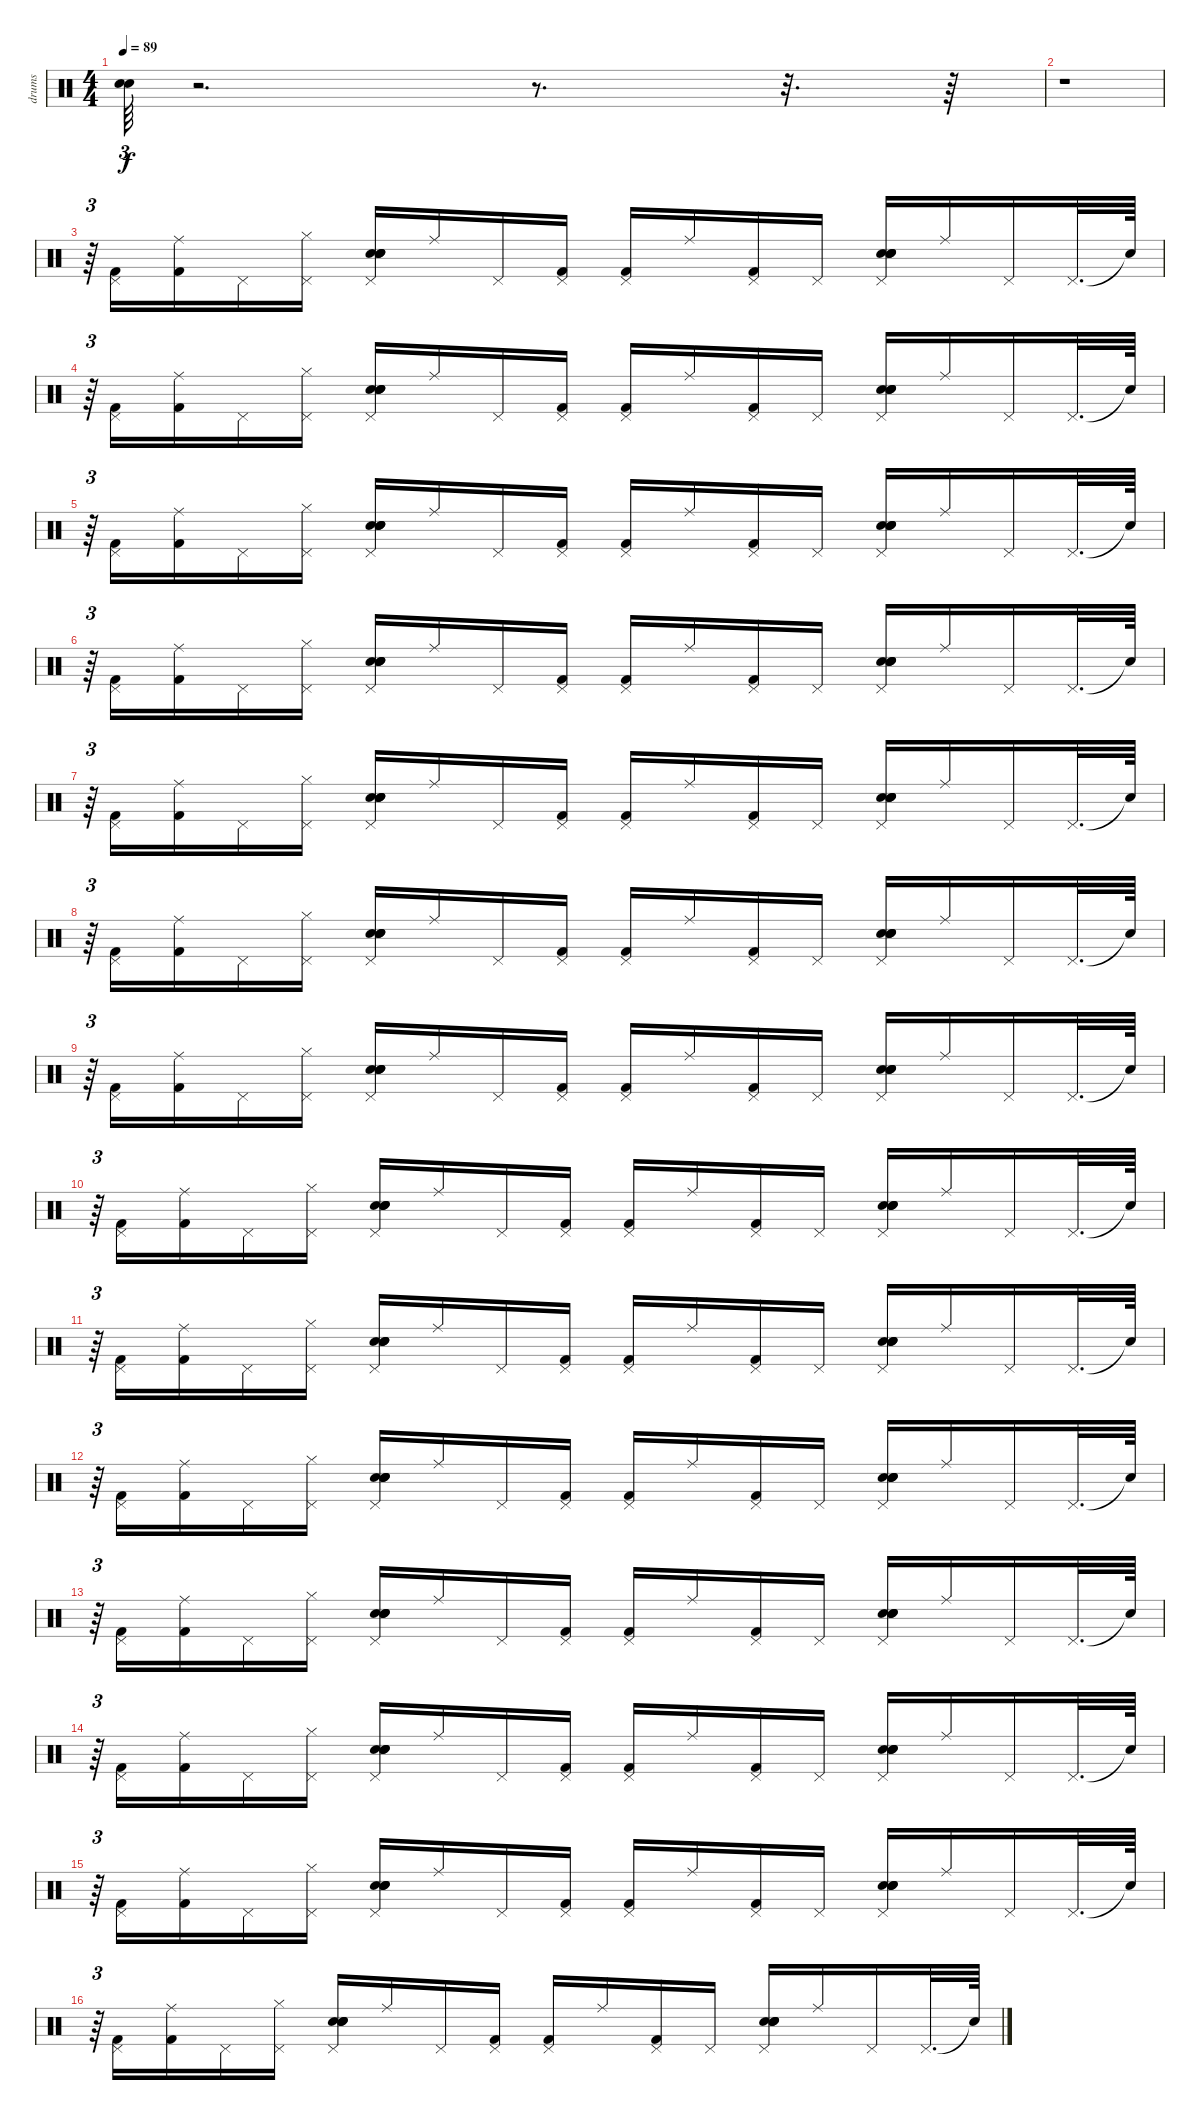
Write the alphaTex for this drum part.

\track ("drums" "drums") {instrument percussion}
\staff {score}
\articulation defaults
\ts (4 4)
\tempo 89
\clef neutral
\ks c
("Snare (hit)"{t} "Snare (hit)"{t}).64{tu (3 2) dy f} r.2{d} r.8{d} r.32{d} r.64 |
r.1 |
r.64{tu (3 2)} ("Kick (hit) 2" "Pedal Hi-Hat (hit)").16 ("Kick (hit) 2" "Ride (middle)").16 "Pedal Hi-Hat (hit)".16 ("Hi-Hat (closed)" "Pedal Hi-Hat (hit)").16 ("Hand Clap (hit)" "Hand Clap (hit)" "Pedal Hi-Hat (hit)" "Electric Snare (hit)" "Electric Snare (hit)").16 "Ride (middle)".16 "Pedal Hi-Hat (hit)".16 ("Kick (hit) 2" "Pedal Hi-Hat (hit)").16 ("Pedal Hi-Hat (hit)" "Kick (hit) 2").16 "Ride (middle)".16 ("Kick (hit) 2" "Pedal Hi-Hat (hit)").16 "Pedal Hi-Hat (hit)".16 ("Pedal Hi-Hat (hit)" "Electric Snare (hit)" "Electric Snare (hit)" "Hand Clap (hit)" "Hand Clap (hit)").16 "Ride (middle)".16 "Pedal Hi-Hat (hit)".16 "Pedal Hi-Hat (hit)".32{d} "Snare (hit)"{t}.64 |
r.64{tu (3 2)} ("Kick (hit) 2" "Pedal Hi-Hat (hit)").16 ("Kick (hit) 2" "Ride (middle)").16 "Pedal Hi-Hat (hit)".16 ("Pedal Hi-Hat (hit)" "Hi-Hat (closed)").16 ("Hand Clap (hit)" "Hand Clap (hit)" "Electric Snare (hit)" "Electric Snare (hit)" "Pedal Hi-Hat (hit)").16 "Ride (middle)".16 "Pedal Hi-Hat (hit)".16 ("Pedal Hi-Hat (hit)" "Kick (hit) 2").16 ("Kick (hit) 2" "Pedal Hi-Hat (hit)").16 "Ride (middle)".16 ("Kick (hit) 2" "Pedal Hi-Hat (hit)").16 "Pedal Hi-Hat (hit)".16 ("Electric Snare (hit)" "Hand Clap (hit)" "Hand Clap (hit)" "Pedal Hi-Hat (hit)" "Electric Snare (hit)").16 "Ride (middle)".16 "Pedal Hi-Hat (hit)".16 "Pedal Hi-Hat (hit)".32{d} "Snare (hit)"{t}.64 |
r.64{tu (3 2)} ("Kick (hit) 2" "Pedal Hi-Hat (hit)").16 ("Kick (hit) 2" "Ride (middle)").16 "Pedal Hi-Hat (hit)".16 ("Pedal Hi-Hat (hit)" "Hi-Hat (closed)").16 ("Hand Clap (hit)" "Pedal Hi-Hat (hit)" "Hand Clap (hit)" "Electric Snare (hit)" "Electric Snare (hit)").16 "Ride (middle)".16 "Pedal Hi-Hat (hit)".16 ("Pedal Hi-Hat (hit)" "Kick (hit) 2").16 ("Kick (hit) 2" "Pedal Hi-Hat (hit)").16 "Ride (middle)".16 ("Kick (hit) 2" "Pedal Hi-Hat (hit)").16 "Pedal Hi-Hat (hit)".16 ("Pedal Hi-Hat (hit)" "Hand Clap (hit)" "Electric Snare (hit)" "Hand Clap (hit)" "Electric Snare (hit)").16 "Ride (middle)".16 "Pedal Hi-Hat (hit)".16 "Pedal Hi-Hat (hit)".32{d} "Snare (hit)"{t}.64 |
r.64{tu (3 2)} ("Pedal Hi-Hat (hit)" "Kick (hit) 2").16 ("Ride (middle)" "Kick (hit) 2").16 "Pedal Hi-Hat (hit)".16 ("Hi-Hat (closed)" "Pedal Hi-Hat (hit)").16 ("Electric Snare (hit)" "Electric Snare (hit)" "Pedal Hi-Hat (hit)" "Hand Clap (hit)" "Hand Clap (hit)").16 "Ride (middle)".16 "Pedal Hi-Hat (hit)".16 ("Pedal Hi-Hat (hit)" "Kick (hit) 2").16 ("Kick (hit) 2" "Pedal Hi-Hat (hit)").16 "Ride (middle)".16 ("Pedal Hi-Hat (hit)" "Kick (hit) 2").16 "Pedal Hi-Hat (hit)".16 ("Hand Clap (hit)" "Hand Clap (hit)" "Electric Snare (hit)" "Pedal Hi-Hat (hit)" "Electric Snare (hit)").16 "Ride (middle)".16 "Pedal Hi-Hat (hit)".16 "Pedal Hi-Hat (hit)".32{d} "Snare (hit)"{t}.64 |
r.64{tu (3 2)} ("Kick (hit) 2" "Pedal Hi-Hat (hit)").16 ("Kick (hit) 2" "Ride (middle)").16 "Pedal Hi-Hat (hit)".16 ("Hi-Hat (closed)" "Pedal Hi-Hat (hit)").16 ("Hand Clap (hit)" "Hand Clap (hit)" "Pedal Hi-Hat (hit)" "Electric Snare (hit)" "Electric Snare (hit)").16 "Ride (middle)".16 "Pedal Hi-Hat (hit)".16 ("Kick (hit) 2" "Pedal Hi-Hat (hit)").16 ("Pedal Hi-Hat (hit)" "Kick (hit) 2").16 "Ride (middle)".16 ("Kick (hit) 2" "Pedal Hi-Hat (hit)").16 "Pedal Hi-Hat (hit)".16 ("Electric Snare (hit)" "Electric Snare (hit)" "Hand Clap (hit)" "Pedal Hi-Hat (hit)" "Hand Clap (hit)").16 "Ride (middle)".16 "Pedal Hi-Hat (hit)".16 "Pedal Hi-Hat (hit)".32{d} "Snare (hit)"{t}.64 |
r.64{tu (3 2)} ("Kick (hit) 2" "Pedal Hi-Hat (hit)").16 ("Kick (hit) 2" "Ride (middle)").16 "Pedal Hi-Hat (hit)".16 ("Pedal Hi-Hat (hit)" "Hi-Hat (closed)").16 ("Hand Clap (hit)" "Pedal Hi-Hat (hit)" "Hand Clap (hit)" "Electric Snare (hit)" "Electric Snare (hit)").16 "Ride (middle)".16 "Pedal Hi-Hat (hit)".16 ("Pedal Hi-Hat (hit)" "Kick (hit) 2").16 ("Kick (hit) 2" "Pedal Hi-Hat (hit)").16 "Ride (middle)".16 ("Kick (hit) 2" "Pedal Hi-Hat (hit)").16 "Pedal Hi-Hat (hit)".16 ("Hand Clap (hit)" "Pedal Hi-Hat (hit)" "Hand Clap (hit)" "Electric Snare (hit)" "Electric Snare (hit)").16 "Ride (middle)".16 "Pedal Hi-Hat (hit)".16 "Pedal Hi-Hat (hit)".32{d} "Snare (hit)"{t}.64 |
r.64{tu (3 2)} ("Pedal Hi-Hat (hit)" "Kick (hit) 2").16 ("Kick (hit) 2" "Ride (middle)").16 "Pedal Hi-Hat (hit)".16 ("Hi-Hat (closed)" "Pedal Hi-Hat (hit)").16 ("Electric Snare (hit)" "Electric Snare (hit)" "Pedal Hi-Hat (hit)" "Hand Clap (hit)" "Hand Clap (hit)").16 "Ride (middle)".16 "Pedal Hi-Hat (hit)".16 ("Kick (hit) 2" "Pedal Hi-Hat (hit)").16 ("Pedal Hi-Hat (hit)" "Kick (hit) 2").16 "Ride (middle)".16 ("Kick (hit) 2" "Pedal Hi-Hat (hit)").16 "Pedal Hi-Hat (hit)".16 ("Hand Clap (hit)" "Hand Clap (hit)" "Electric Snare (hit)" "Electric Snare (hit)" "Pedal Hi-Hat (hit)").16 "Ride (middle)".16 "Pedal Hi-Hat (hit)".16 "Pedal Hi-Hat (hit)".32{d} "Snare (hit)"{t}.64 |
r.64{tu (3 2)} ("Pedal Hi-Hat (hit)" "Kick (hit) 2").16 ("Kick (hit) 2" "Ride (middle)").16 "Pedal Hi-Hat (hit)".16 ("Pedal Hi-Hat (hit)" "Hi-Hat (closed)").16 ("Hand Clap (hit)" "Pedal Hi-Hat (hit)" "Electric Snare (hit)" "Hand Clap (hit)" "Electric Snare (hit)").16 "Ride (middle)".16 "Pedal Hi-Hat (hit)".16 ("Pedal Hi-Hat (hit)" "Kick (hit) 2").16 ("Kick (hit) 2" "Pedal Hi-Hat (hit)").16 "Ride (middle)".16 ("Kick (hit) 2" "Pedal Hi-Hat (hit)").16 "Pedal Hi-Hat (hit)".16 ("Pedal Hi-Hat (hit)" "Hand Clap (hit)" "Hand Clap (hit)" "Electric Snare (hit)" "Electric Snare (hit)").16 "Ride (middle)".16 "Pedal Hi-Hat (hit)".16 "Pedal Hi-Hat (hit)".32{d} "Snare (hit)"{t}.64 |
r.64{tu (3 2)} ("Pedal Hi-Hat (hit)" "Kick (hit) 2").16 ("Ride (middle)" "Kick (hit) 2").16 "Pedal Hi-Hat (hit)".16 ("Hi-Hat (closed)" "Pedal Hi-Hat (hit)").16 ("Electric Snare (hit)" "Electric Snare (hit)" "Hand Clap (hit)" "Hand Clap (hit)" "Pedal Hi-Hat (hit)").16 "Ride (middle)".16 "Pedal Hi-Hat (hit)".16 ("Pedal Hi-Hat (hit)" "Kick (hit) 2").16 ("Kick (hit) 2" "Pedal Hi-Hat (hit)").16 "Ride (middle)".16 ("Pedal Hi-Hat (hit)" "Kick (hit) 2").16 "Pedal Hi-Hat (hit)".16 ("Electric Snare (hit)" "Hand Clap (hit)" "Hand Clap (hit)" "Pedal Hi-Hat (hit)" "Electric Snare (hit)").16 "Ride (middle)".16 "Pedal Hi-Hat (hit)".16 "Pedal Hi-Hat (hit)".32{d} "Snare (hit)"{t}.64 |
r.64{tu (3 2)} ("Kick (hit) 2" "Pedal Hi-Hat (hit)").16 ("Kick (hit) 2" "Ride (middle)").16 "Pedal Hi-Hat (hit)".16 ("Pedal Hi-Hat (hit)" "Hi-Hat (closed)").16 ("Hand Clap (hit)" "Pedal Hi-Hat (hit)" "Hand Clap (hit)" "Electric Snare (hit)" "Electric Snare (hit)").16 "Ride (middle)".16 "Pedal Hi-Hat (hit)".16 ("Kick (hit) 2" "Pedal Hi-Hat (hit)").16 ("Kick (hit) 2" "Pedal Hi-Hat (hit)").16 "Ride (middle)".16 ("Kick (hit) 2" "Pedal Hi-Hat (hit)").16 "Pedal Hi-Hat (hit)".16 ("Hand Clap (hit)" "Electric Snare (hit)" "Hand Clap (hit)" "Pedal Hi-Hat (hit)" "Electric Snare (hit)").16 "Ride (middle)".16 "Pedal Hi-Hat (hit)".16 "Pedal Hi-Hat (hit)".32{d} "Snare (hit)"{t}.64 |
r.64{tu (3 2)} ("Pedal Hi-Hat (hit)" "Kick (hit) 2").16 ("Kick (hit) 2" "Ride (middle)").16 "Pedal Hi-Hat (hit)".16 ("Pedal Hi-Hat (hit)" "Hi-Hat (closed)").16 ("Pedal Hi-Hat (hit)" "Hand Clap (hit)" "Electric Snare (hit)" "Electric Snare (hit)" "Hand Clap (hit)").16 "Ride (middle)".16 "Pedal Hi-Hat (hit)".16 ("Pedal Hi-Hat (hit)" "Kick (hit) 2").16 ("Pedal Hi-Hat (hit)" "Kick (hit) 2").16 "Ride (middle)".16 ("Kick (hit) 2" "Pedal Hi-Hat (hit)").16 "Pedal Hi-Hat (hit)".16 ("Electric Snare (hit)" "Electric Snare (hit)" "Hand Clap (hit)" "Pedal Hi-Hat (hit)" "Hand Clap (hit)").16 "Ride (middle)".16 "Pedal Hi-Hat (hit)".16 "Pedal Hi-Hat (hit)".32{d} "Snare (hit)"{t}.64 |
r.64{tu (3 2)} ("Kick (hit) 2" "Pedal Hi-Hat (hit)").16 ("Kick (hit) 2" "Ride (middle)").16 "Pedal Hi-Hat (hit)".16 ("Hi-Hat (closed)" "Pedal Hi-Hat (hit)").16 ("Hand Clap (hit)" "Hand Clap (hit)" "Electric Snare (hit)" "Electric Snare (hit)" "Pedal Hi-Hat (hit)").16 "Ride (middle)".16 "Pedal Hi-Hat (hit)".16 ("Kick (hit) 2" "Pedal Hi-Hat (hit)").16 ("Pedal Hi-Hat (hit)" "Kick (hit) 2").16 "Ride (middle)".16 ("Kick (hit) 2" "Pedal Hi-Hat (hit)").16 "Pedal Hi-Hat (hit)".16 ("Pedal Hi-Hat (hit)" "Hand Clap (hit)" "Hand Clap (hit)" "Electric Snare (hit)" "Electric Snare (hit)").16 "Ride (middle)".16 "Pedal Hi-Hat (hit)".16 "Pedal Hi-Hat (hit)".32{d} "Snare (hit)"{t}.64 |
r.64{tu (3 2)} ("Kick (hit) 2" "Pedal Hi-Hat (hit)").16 ("Kick (hit) 2" "Ride (middle)").16 "Pedal Hi-Hat (hit)".16 ("Pedal Hi-Hat (hit)" "Hi-Hat (closed)").16 ("Hand Clap (hit)" "Electric Snare (hit)" "Electric Snare (hit)" "Pedal Hi-Hat (hit)" "Hand Clap (hit)").16 "Ride (middle)".16 "Pedal Hi-Hat (hit)".16 ("Kick (hit) 2" "Pedal Hi-Hat (hit)").16 ("Pedal Hi-Hat (hit)" "Kick (hit) 2").16 "Ride (middle)".16 ("Kick (hit) 2" "Pedal Hi-Hat (hit)").16 "Pedal Hi-Hat (hit)".16 ("Pedal Hi-Hat (hit)" "Hand Clap (hit)" "Hand Clap (hit)" "Electric Snare (hit)" "Electric Snare (hit)").16 "Ride (middle)".16 "Pedal Hi-Hat (hit)".16 "Pedal Hi-Hat (hit)".32{d} "Snare (hit)"{t}.64 |
r.64{tu (3 2)} ("Kick (hit) 2" "Pedal Hi-Hat (hit)").16 ("Ride (middle)" "Kick (hit) 2").16 "Pedal Hi-Hat (hit)".16 ("Hi-Hat (closed)" "Pedal Hi-Hat (hit)").16 ("Hand Clap (hit)" "Hand Clap (hit)" "Pedal Hi-Hat (hit)" "Electric Snare (hit)" "Electric Snare (hit)").16 "Ride (middle)".16 "Pedal Hi-Hat (hit)".16 ("Pedal Hi-Hat (hit)" "Kick (hit) 2").16 ("Pedal Hi-Hat (hit)" "Kick (hit) 2").16 "Ride (middle)".16 ("Kick (hit) 2" "Pedal Hi-Hat (hit)").16 "Pedal Hi-Hat (hit)".16 ("Hand Clap (hit)" "Electric Snare (hit)" "Electric Snare (hit)" "Pedal Hi-Hat (hit)" "Hand Clap (hit)").16 "Ride (middle)".16 "Pedal Hi-Hat (hit)".16 "Pedal Hi-Hat (hit)".32{d} "Snare (hit)"{t}.64
